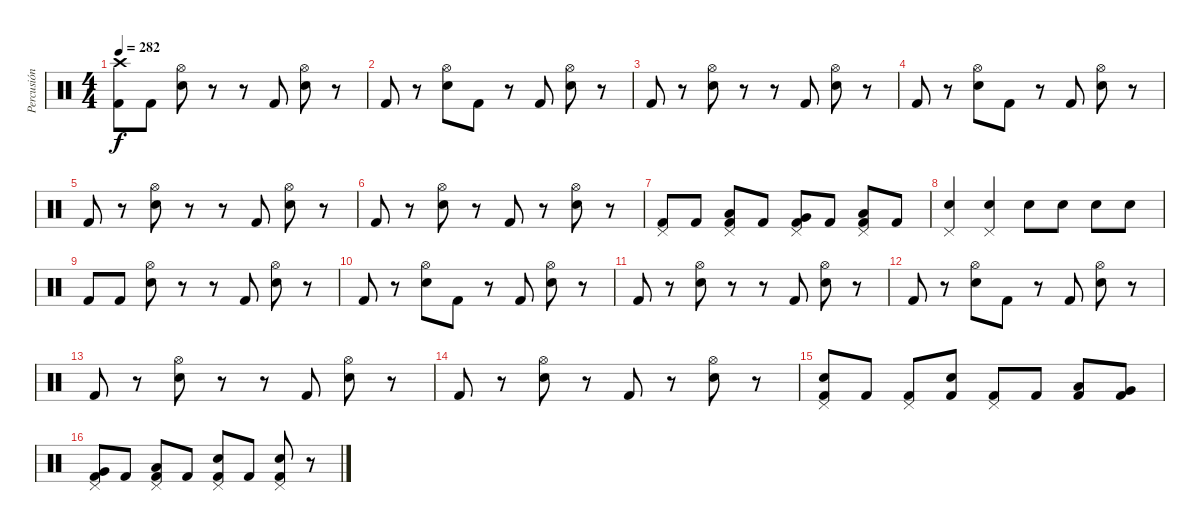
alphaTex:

\track ("Percusión" "Percusión") {instrument percussion}
\staff {score}
\articulation defaults
\ts (4 4)
\tempo 282
\clef neutral
\ks c
("Kick (hit) 2" "Crash high (hit)").8{dy f} "Kick (hit) 2".8 ("Snare (hit) 2" "Hi-Hat (open)").8 r.8 r.8 "Kick (hit) 2".8 ("Snare (hit) 2" "Hi-Hat (open)").8 r.8 |
"Kick (hit) 2".8 r.8 ("Snare (hit) 2" "Hi-Hat (open)").8 "Kick (hit) 2".8 r.8 "Kick (hit) 2".8 ("Snare (hit) 2" "Hi-Hat (open)").8 r.8 |
"Kick (hit) 2".8 r.8 ("Snare (hit) 2" "Hi-Hat (open)").8 r.8 r.8 "Kick (hit) 2".8 ("Snare (hit) 2" "Hi-Hat (open)").8 r.8 |
"Kick (hit) 2".8 r.8 ("Snare (hit) 2" "Hi-Hat (open)").8 "Kick (hit) 2".8 r.8 "Kick (hit) 2".8 ("Snare (hit) 2" "Hi-Hat (open)").8 r.8 |
"Kick (hit) 2".8 r.8 ("Snare (hit) 2" "Hi-Hat (open)").8 r.8 r.8 "Kick (hit) 2".8 ("Snare (hit) 2" "Hi-Hat (open)").8 r.8 |
"Kick (hit) 2".8 r.8 ("Snare (hit) 2" "Hi-Hat (open)").8 r.8 "Kick (hit) 2".8 r.8 ("Snare (hit) 2" "Hi-Hat (open)").8 r.8 |
("Kick (hit) 2" "Pedal Hi-Hat (hit)").8 "Kick (hit) 2".8 ("Kick (hit) 2" "Low Tom (hit)" "Pedal Hi-Hat (hit)").8 "Kick (hit) 2".8 ("Kick (hit) 2" "Very Low Tom (hit)" "Pedal Hi-Hat (hit)").8 "Kick (hit) 2".8 ("Kick (hit) 2" "Low Floor Tom (hit)" "Pedal Hi-Hat (hit)").8 "Kick (hit) 2".8 |
("Snare (hit) 2" "Pedal Hi-Hat (hit)").4 ("Snare (hit) 2" "Pedal Hi-Hat (hit)").4 "Snare (hit) 2".8 "Snare (hit) 2".8 "Snare (hit) 2".8 "Snare (hit) 2".8 |
"Kick (hit) 2".8 "Kick (hit) 2".8 ("Snare (hit) 2" "Hi-Hat (open)").8 r.8 r.8 "Kick (hit) 2".8 ("Snare (hit) 2" "Hi-Hat (open)").8 r.8 |
"Kick (hit) 2".8 r.8 ("Snare (hit) 2" "Hi-Hat (open)").8 "Kick (hit) 2".8 r.8 "Kick (hit) 2".8 ("Snare (hit) 2" "Hi-Hat (open)").8 r.8 |
"Kick (hit) 2".8 r.8 ("Snare (hit) 2" "Hi-Hat (open)").8 r.8 r.8 "Kick (hit) 2".8 ("Snare (hit) 2" "Hi-Hat (open)").8 r.8 |
"Kick (hit) 2".8 r.8 ("Snare (hit) 2" "Hi-Hat (open)").8 "Kick (hit) 2".8 r.8 "Kick (hit) 2".8 ("Snare (hit) 2" "Hi-Hat (open)").8 r.8 |
"Kick (hit) 2".8 r.8 ("Snare (hit) 2" "Hi-Hat (open)").8 r.8 r.8 "Kick (hit) 2".8 ("Snare (hit) 2" "Hi-Hat (open)").8 r.8 |
"Kick (hit) 2".8 r.8 ("Snare (hit) 2" "Hi-Hat (open)").8 r.8 "Kick (hit) 2".8 r.8 ("Snare (hit) 2" "Hi-Hat (open)").8 r.8 |
("Kick (hit) 2" "Snare (hit) 2" "Pedal Hi-Hat (hit)").8 "Kick (hit) 2".8 ("Kick (hit) 2" "Pedal Hi-Hat (hit)").8 ("Kick (hit) 2" "Snare (hit) 2").8 ("Kick (hit) 2" "Pedal Hi-Hat (hit)").8 "Kick (hit) 2".8 ("Kick (hit) 2" "Low Tom (hit)").8 ("Kick (hit) 2" "Very Low Tom (hit)").8 |
("Kick (hit) 2" "Very Low Tom (hit)" "Pedal Hi-Hat (hit)").8 "Kick (hit) 2".8 ("Kick (hit) 2" "Low Floor Tom (hit)" "Pedal Hi-Hat (hit)").8 "Kick (hit) 2".8 ("Kick (hit) 2" "Snare (hit) 2" "Pedal Hi-Hat (hit)").8 "Kick (hit) 2".8 ("Kick (hit) 2" "Snare (hit) 2" "Pedal Hi-Hat (hit)").8 r.8
